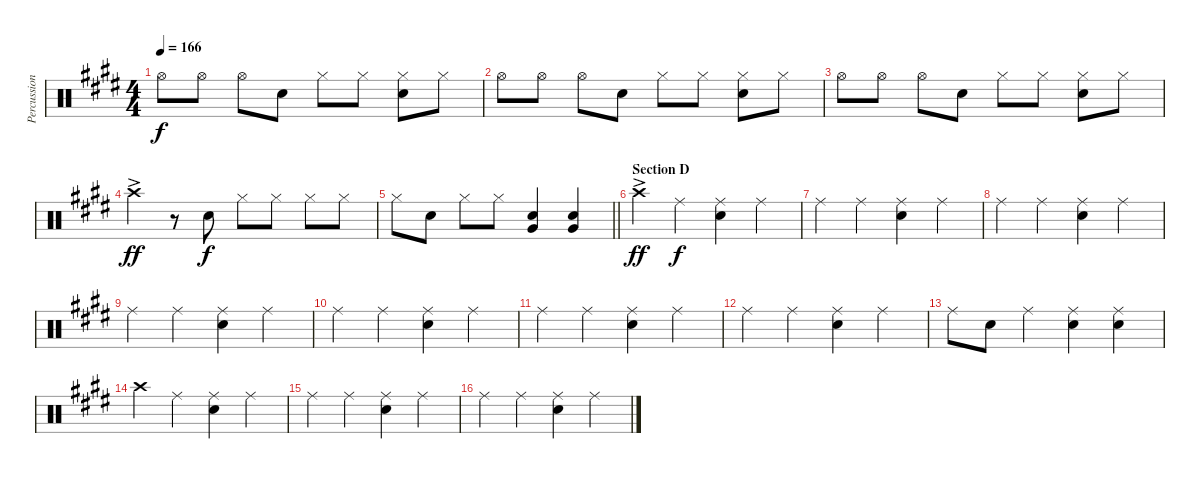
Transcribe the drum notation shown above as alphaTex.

\track ("Percussion - Other" "Percussion") {instrument percussion}
\staff {score}
\articulation defaults
\ts (4 4)
\tempo 166
\clef neutral
\ks e "Hi-Hat (open)".8{dy f} "Hi-Hat (open)".8 "Hi-Hat (open)".8 "Snare (hit) 2".8 "Hi-Hat (closed)".8 "Hi-Hat (closed)".8
("Hi-Hat (closed)" "Snare (hit) 2").8 "Hi-Hat (closed)".8 |
"Hi-Hat (open)".8 "Hi-Hat (open)".8 "Hi-Hat (open)".8 "Snare (hit) 2".8 "Hi-Hat (closed)".8 "Hi-Hat (closed)".8 ("Hi-Hat (closed)" "Snare (hit) 2").8 "Hi-Hat (closed)".8 |
"Hi-Hat (open)".8 "Hi-Hat (open)".8 "Hi-Hat (open)".8 "Snare (hit) 2".8 "Hi-Hat (closed)".8 "Hi-Hat (closed)".8 ("Hi-Hat (closed)" "Snare (hit) 2").8 "Hi-Hat (closed)".8 |
"Crash high (hit)"{ac}.4{dy ff} r.8 "Snare (hit) 2".8{dy f} "Hi-Hat (closed)".8 "Hi-Hat (closed)".8 "Hi-Hat (closed)".8 "Hi-Hat (closed)".8 |
\barLineRight lightlight "Hi-Hat (closed)".8 "Snare (hit) 2".8 "Hi-Hat (closed)".8 "Hi-Hat (closed)".8
("Snare (hit) 2" "Very Low Tom (hit)").4 ("Snare (hit) 2" "Very Low Tom (hit)").4 |
\section ("" "Section D")
"Crash high (hit)"{ac}.4{dy ff} "Ride (middle)".4{dy f} ("Ride (middle)" "Snare (hit) 2").4 "Ride (middle)".4 |
"Ride (middle)".4 "Ride (middle)".4 ("Ride (middle)" "Snare (hit) 2").4 "Ride (middle)".4 |
"Ride (middle)".4 "Ride (middle)".4 ("Ride (middle)" "Snare (hit) 2").4 "Ride (middle)".4 |
"Ride (middle)".4 "Ride (middle)".4 ("Ride (middle)" "Snare (hit) 2").4 "Ride (middle)".4 |
"Ride (middle)".4 "Ride (middle)".4 ("Ride (middle)" "Snare (hit) 2").4 "Ride (middle)".4 |
"Ride (middle)".4 "Ride (middle)".4 ("Ride (middle)" "Snare (hit) 2").4 "Ride (middle)".4 |
"Ride (middle)".4 "Ride (middle)".4 ("Ride (middle)" "Snare (hit) 2").4 "Ride (middle)".4 |
"Ride (middle)".8 "Snare (hit) 2".8 "Ride (middle)".4 ("Ride (middle)" "Snare (hit) 2").4 ("Ride (middle)" "Snare (hit) 2").4 |
"Crash high (hit)".4 "Ride (middle)".4 ("Ride (middle)" "Snare (hit) 2").4 "Ride (middle)".4 |
"Ride (middle)".4 "Ride (middle)".4 ("Ride (middle)" "Snare (hit) 2").4 "Ride (middle)".4 |
"Ride (middle)".4 "Ride (middle)".4 ("Ride (middle)" "Snare (hit) 2").4 "Ride (middle)".4
